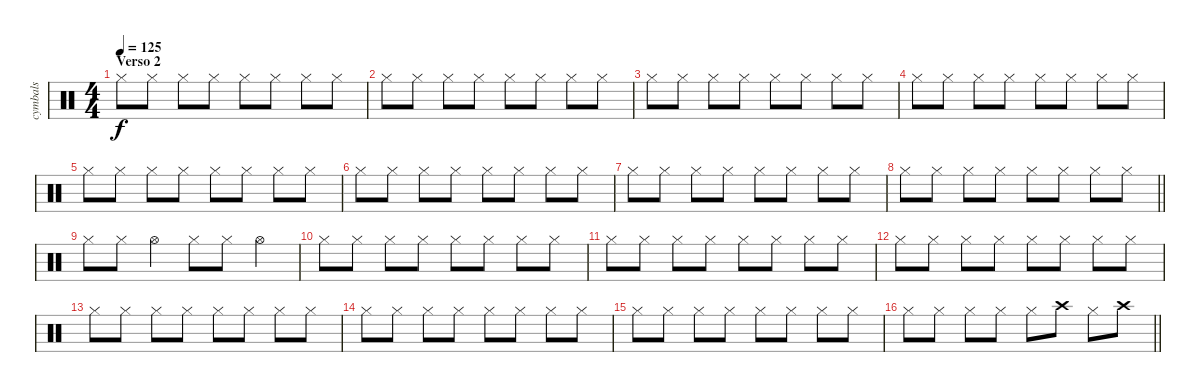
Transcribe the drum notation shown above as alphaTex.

\track ("cymbals" "cymbals") {instrument percussion}
\staff {score}
\articulation defaults
\ts (4 4)
\section ("" "Verso 2")
\tempo 125
\clef neutral
\ks c "Hi-Hat (closed)".8{dy f} "Hi-Hat (closed)".8 "Hi-Hat (closed)".8 "Hi-Hat (closed)".8 "Hi-Hat (closed)".8 "Hi-Hat (closed)".8 "Hi-Hat (closed)".8 "Hi-Hat (closed)".8
|
"Hi-Hat (closed)".8 "Hi-Hat (closed)".8 "Hi-Hat (closed)".8 "Hi-Hat (closed)".8 "Hi-Hat (closed)".8 "Hi-Hat (closed)".8 "Hi-Hat (closed)".8 "Hi-Hat (closed)".8 |
"Hi-Hat (closed)".8 "Hi-Hat (closed)".8 "Hi-Hat (closed)".8 "Hi-Hat (closed)".8 "Hi-Hat (closed)".8 "Hi-Hat (closed)".8 "Hi-Hat (closed)".8 "Hi-Hat (closed)".8 |
"Hi-Hat (closed)".8 "Hi-Hat (closed)".8 "Hi-Hat (closed)".8 "Hi-Hat (closed)".8 "Hi-Hat (closed)".8 "Hi-Hat (closed)".8 "Hi-Hat (closed)".8 "Hi-Hat (closed)".8 |
"Hi-Hat (closed)".8 "Hi-Hat (closed)".8 "Hi-Hat (closed)".8 "Hi-Hat (closed)".8 "Hi-Hat (closed)".8 "Hi-Hat (closed)".8 "Hi-Hat (closed)".8 "Hi-Hat (closed)".8 |
"Hi-Hat (closed)".8 "Hi-Hat (closed)".8 "Hi-Hat (closed)".8 "Hi-Hat (closed)".8 "Hi-Hat (closed)".8 "Hi-Hat (closed)".8 "Hi-Hat (closed)".8 "Hi-Hat (closed)".8 |
"Hi-Hat (closed)".8 "Hi-Hat (closed)".8 "Hi-Hat (closed)".8 "Hi-Hat (closed)".8 "Hi-Hat (closed)".8 "Hi-Hat (closed)".8 "Hi-Hat (closed)".8 "Hi-Hat (closed)".8 |
\barLineRight lightlight "Hi-Hat (closed)".8 "Hi-Hat (closed)".8 "Hi-Hat (closed)".8 "Hi-Hat (closed)".8 "Hi-Hat (closed)".8 "Hi-Hat (closed)".8 "Hi-Hat (closed)".8 "Hi-Hat (closed)".8
|
"Hi-Hat (closed)".8 "Hi-Hat (closed)".8 "Hi-Hat (open)".4 "Hi-Hat (closed)".8 "Hi-Hat (closed)".8 "Hi-Hat (open)".4 |
"Hi-Hat (closed)".8 "Hi-Hat (closed)".8 "Hi-Hat (closed)".8 "Hi-Hat (closed)".8 "Hi-Hat (closed)".8 "Hi-Hat (closed)".8 "Hi-Hat (closed)".8 "Hi-Hat (closed)".8 |
"Hi-Hat (closed)".8 "Hi-Hat (closed)".8 "Hi-Hat (closed)".8 "Hi-Hat (closed)".8 "Hi-Hat (closed)".8 "Hi-Hat (closed)".8 "Hi-Hat (closed)".8 "Hi-Hat (closed)".8 |
"Hi-Hat (closed)".8 "Hi-Hat (closed)".8 "Hi-Hat (closed)".8 "Hi-Hat (closed)".8 "Hi-Hat (closed)".8 "Hi-Hat (closed)".8 "Hi-Hat (closed)".8 "Hi-Hat (closed)".8 |
"Hi-Hat (closed)".8 "Hi-Hat (closed)".8 "Hi-Hat (closed)".8 "Hi-Hat (closed)".8 "Hi-Hat (closed)".8 "Hi-Hat (closed)".8 "Hi-Hat (closed)".8 "Hi-Hat (closed)".8 |
"Hi-Hat (closed)".8 "Hi-Hat (closed)".8 "Hi-Hat (closed)".8 "Hi-Hat (closed)".8 "Hi-Hat (closed)".8 "Hi-Hat (closed)".8 "Hi-Hat (closed)".8 "Hi-Hat (closed)".8 |
"Hi-Hat (closed)".8 "Hi-Hat (closed)".8 "Hi-Hat (closed)".8 "Hi-Hat (closed)".8 "Hi-Hat (closed)".8 "Hi-Hat (closed)".8 "Hi-Hat (closed)".8 "Hi-Hat (closed)".8 |
\barLineRight lightlight "Hi-Hat (closed)".8 "Hi-Hat (closed)".8 "Hi-Hat (closed)".8 "Hi-Hat (closed)".8 "Hi-Hat (closed)".8 "Crash high (hit)".8 "Hi-Hat (closed)".8 "Crash high (hit)".8
